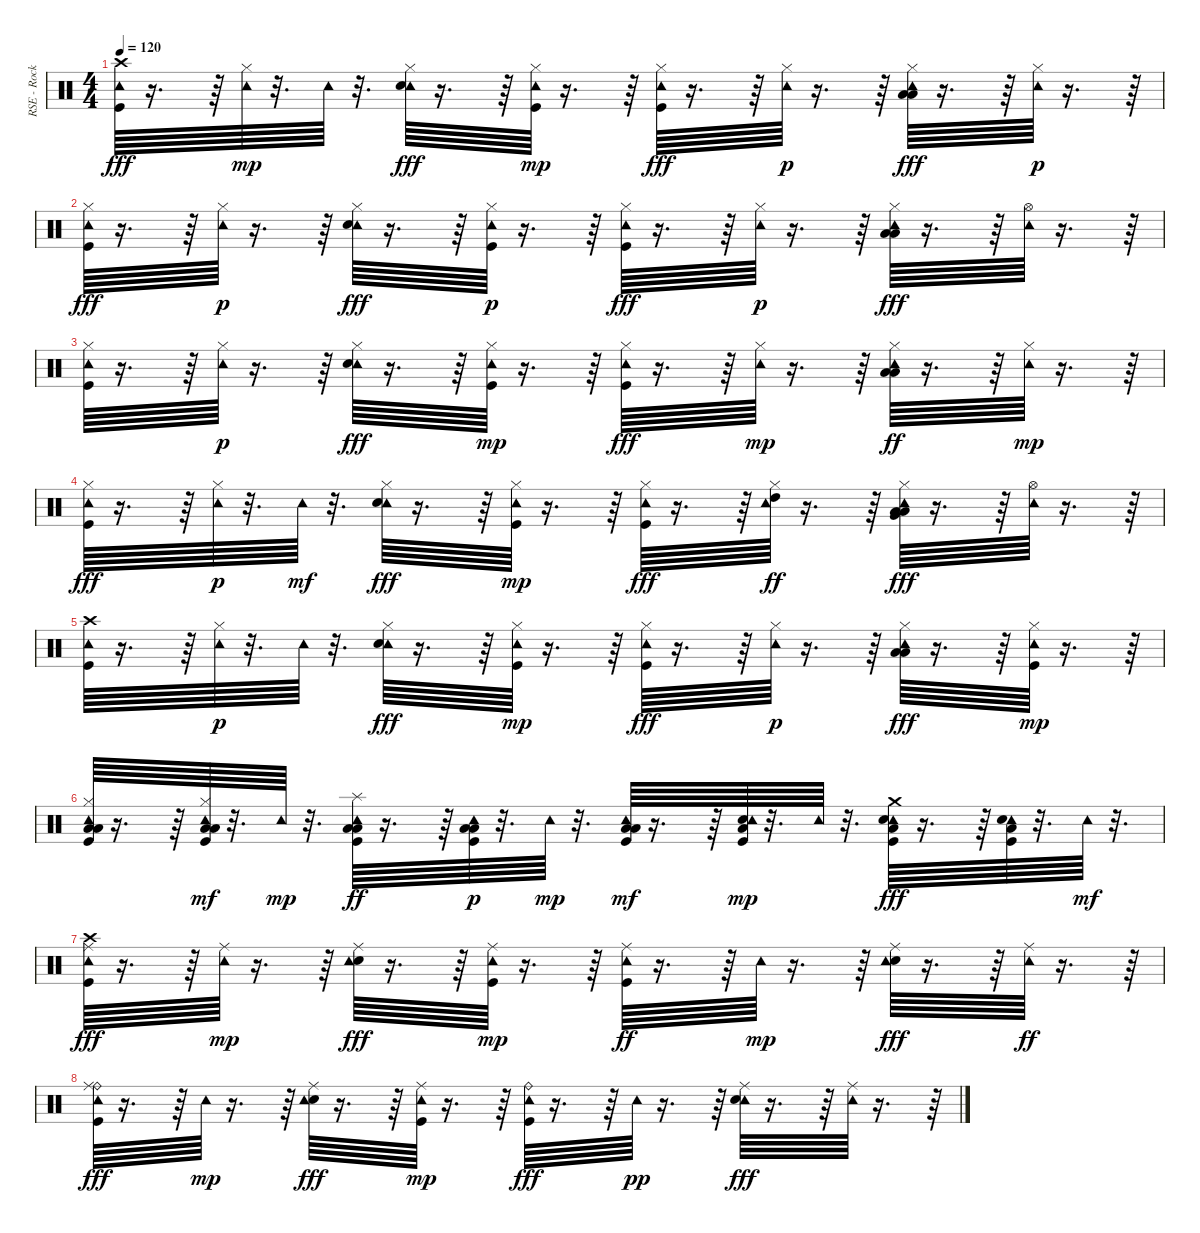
\track ("RSE - Rock Drum Kit" "RSE - Rock") {instrument percussion}
\staff {score}
\articulation defaults
\ts (4 4)
\tempo 120
\clef neutral
\ks c
("Kick (hit)" "Crash high (hit)" "Tambourine (hit)").64{dy fff} r.16{d} r.64 ("Hi-Hat (closed)" "Tambourine (hit)").64{dy mp} r.32{d} "Tambourine (hit)".64 r.32{d} ("Tambourine (hit)" "Hi-Hat (closed)" "Metronome (bell)").64{dy fff} r.16{d} r.64 ("Kick (hit)" "Hi-Hat (closed)" "Tambourine (hit)").64{dy mp} r.16{d} r.64 ("Hi-Hat (closed)" "Tambourine (hit)" "Kick (hit)").64{dy fff} r.16{d} r.64 ("Hi-Hat (closed)" "Tambourine (hit)").64{dy p} r.16{d} r.64 ("Hi-Hat (closed)" "Tambourine (hit)" "Low Floor Tom (hit)" "Low Tom (hit)").64{dy fff} r.16{d} r.64 ("Tambourine (hit)" "Hi-Hat (closed)").64{dy p} r.16{d} r.64 |
("Tambourine (hit)" "Hi-Hat (closed)" "Kick (hit)").64{dy fff} r.16{d} r.64 ("Hi-Hat (closed)" "Tambourine (hit)").64{dy p} r.16{d} r.64 ("Tambourine (hit)" "Hi-Hat (closed)" "Metronome (bell)").64{dy fff} r.16{d} r.64 ("Hi-Hat (closed)" "Kick (hit)" "Tambourine (hit)").64{dy p} r.16{d} r.64 ("Hi-Hat (closed)" "Tambourine (hit)" "Kick (hit)").64{dy fff} r.16{d} r.64 ("Hi-Hat (closed)" "Tambourine (hit)").64{dy p} r.16{d} r.64 ("Hi-Hat (closed)" "Tambourine (hit)" "Low Floor Tom (hit)" "Low Tom (hit)").64{dy fff} r.16{d} r.64 ("Tambourine (hit)" "Hi-Hat (open)").64 r.16{d} r.64 |
("Tambourine (hit)" "Hi-Hat (closed)" "Kick (hit)").64 r.16{d} r.64 ("Hi-Hat (closed)" "Tambourine (hit)").64{dy p} r.16{d} r.64 ("Tambourine (hit)" "Metronome (bell)" "Hi-Hat (closed)").64{dy fff} r.16{d} r.64 ("Hi-Hat (closed)" "Kick (hit)" "Tambourine (hit)").64{dy mp} r.16{d} r.64 ("Tambourine (hit)" "Hi-Hat (closed)" "Kick (hit)").64{dy fff} r.16{d} r.64 ("Hi-Hat (closed)" "Tambourine (hit)").64{dy mp} r.16{d} r.64 ("Tambourine (hit)" "Hi-Hat (closed)" "Low Floor Tom (hit)" "Low Tom (hit)").64{dy ff} r.16{d} r.64 ("Hi-Hat (closed)" "Tambourine (hit)").64{dy mp} r.16{d} r.64 |
("Tambourine (hit)" "Hi-Hat (closed)" "Kick (hit)").64{dy fff} r.16{d} r.64 ("Hi-Hat (closed)" "Tambourine (hit)").64{dy p} r.32{d} "Tambourine (hit)".64{dy mf} r.32{d} ("Hi-Hat (closed)" "Tambourine (hit)" "Metronome (bell)").64{dy fff} r.16{d} r.64 ("Hi-Hat (closed)" "Kick (hit)" "Tambourine (hit)").64{dy mp} r.16{d} r.64 ("Hi-Hat (closed)" "Tambourine (hit)" "Kick (hit)").64{dy fff} r.16{d} r.64 ("Hi-Hat (closed)" "Tambourine (hit)" "High Tom (hit)").64{dy ff} r.16{d} r.64 ("Hi-Hat (closed)" "Low Tom (hit)" "Low Floor Tom (hit)" "Tambourine (hit)" "Very Low Tom (hit)").64{dy fff} r.16{d} r.64 ("Tambourine (hit)" "Hi-Hat (open)").64 r.16{d} r.64 |
("Crash high (hit)" "Tambourine (hit)" "Kick (hit)").64 r.16{d} r.64 ("Hi-Hat (closed)" "Tambourine (hit)").64{dy p} r.32{d} "Tambourine (hit)".64 r.32{d} ("Tambourine (hit)" "Hi-Hat (closed)" "Metronome (bell)").64{dy fff} r.16{d} r.64 ("Kick (hit)" "Hi-Hat (closed)" "Tambourine (hit)").64{dy mp} r.16{d} r.64 ("Tambourine (hit)" "Hi-Hat (closed)" "Kick (hit)").64{dy fff} r.16{d} r.64 ("Hi-Hat (closed)" "Tambourine (hit)").64{dy p} r.16{d} r.64 ("Tambourine (hit)" "Hi-Hat (closed)" "Low Floor Tom (hit)" "Low Tom (hit)").64{dy fff} r.16{d} r.64 ("Tambourine (hit)" "Hi-Hat (closed)" "Kick (hit)").64{dy mp} r.16{d} r.64 |
("Tambourine (hit)" "Hi-Hat (closed)" "Kick (hit)" "Low Tom (hit)" "Low Floor Tom (hit)").64 r.16{d} r.64 ("Hi-Hat (closed)" "Tambourine (hit)" "Kick (hit)" "Low Tom (hit)" "Low Floor Tom (hit)").64{dy mf} r.32{d} "Tambourine (hit)".64{dy mp} r.32{d} ("Tambourine (hit)" "Splash (hit)" "Kick (hit)" "Low Tom (hit)" "Low Floor Tom (hit)").64{dy ff} r.16{d} r.64 ("Kick (hit)" "Low Tom (hit)" "Low Floor Tom (hit)" "Tambourine (hit)").64{dy p} r.32{d} "Tambourine (hit)".64{dy mp} r.32{d} ("Tambourine (hit)" "Low Floor Tom (hit)" "Kick (hit)" "Low Tom (hit)").64{dy mf} r.16{d} r.64 ("Kick (hit)" "Metronome (bell)" "Low Floor Tom (hit)" "Tambourine (hit)").64{dy mp} r.32{d} "Tambourine (hit)".64 r.32{d} ("Tambourine (hit)" "Crash medium (hit)" "Metronome (bell)" "Kick (hit)" "Low Floor Tom (hit)").64{dy fff} r.16{d} r.64 ("Tambourine (hit)" "Metronome (bell)" "Kick (hit)" "Low Floor Tom (hit)").64 r.32{d} "Tambourine (hit)".64{dy mf} r.32{d} |
("Tambourine (hit)" "Crash high (hit)" "Kick (hit)" "Ride (middle)").64{dy fff} r.16{d} r.64 ("Ride (middle)" "Tambourine (hit)").64{dy mp} r.16{d} r.64 ("Metronome (bell)" "Tambourine (hit)" "Ride (middle)").64{dy fff} r.16{d} r.64 ("Kick (hit)" "Ride (middle)" "Tambourine (hit)").64{dy mp} r.16{d} r.64 ("Kick (hit)" "Ride (middle)" "Tambourine (hit)").64{dy ff} r.16{d} r.64 "Tambourine (hit)".64{dy mp} r.16{d} r.64 ("Metronome (bell)" "Tambourine (hit)" "Ride (middle)").64{dy fff} r.16{d} r.64 ("Tambourine (hit)" "Ride (middle)").64{dy ff} r.16{d} r.64 |
("Ride (bell)" "Tambourine (hit)" "Ride (middle)" "Kick (hit)").64{dy fff} r.16{d} r.64 "Tambourine (hit)".64{dy mp} r.16{d} r.64 ("Ride (middle)" "Metronome (bell)" "Tambourine (hit)").64{dy fff} r.16{d} r.64 ("Ride (middle)" "Kick (hit)" "Tambourine (hit)").64{dy mp} r.16{d} r.64 ("Tambourine (hit)" "Ride (bell)" "Kick (hit)").64{dy fff} r.16{d} r.64 "Tambourine (hit)".64{dy pp} r.16{d} r.64 ("Tambourine (hit)" "Metronome (bell)" "Ride (middle)").64{dy fff} r.16{d} r.64 ("Tambourine (hit)" "Ride (middle)").64 r.16{d} r.64
